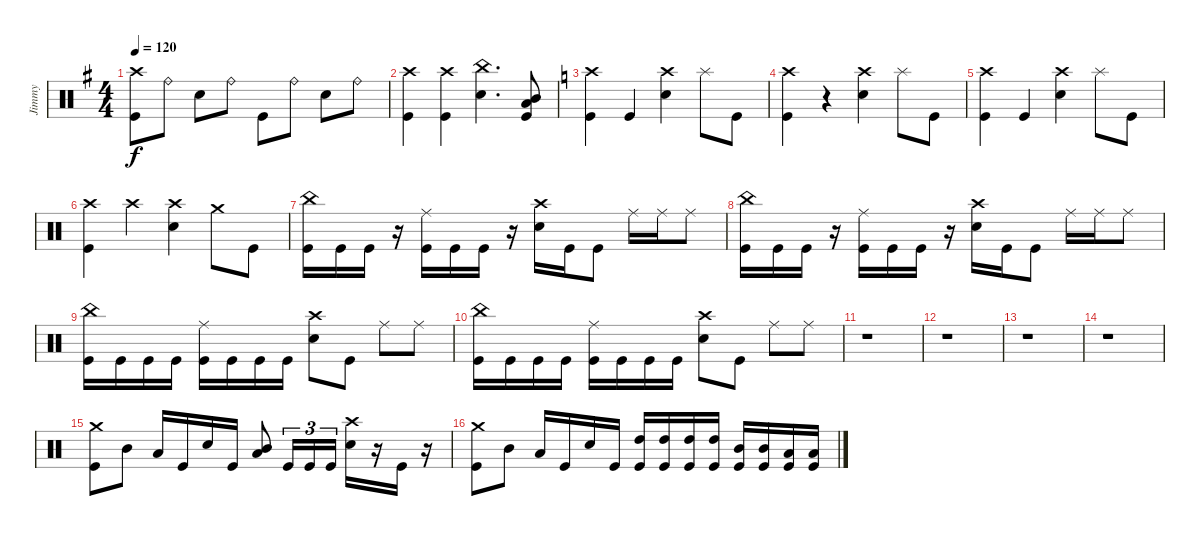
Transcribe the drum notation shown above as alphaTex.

\track ("Jimmy" "Jimmy") {instrument percussion}
\staff {score}
\articulation defaults
\ts (4 4)
\tempo 120
\clef neutral
\ks eminor
("Kick (hit)" "Crash high (hit)").8{dy f} "Ride (bell)".8 "Snare (hit) 2".8 "Ride (bell)".8 "Kick (hit)".8 "Ride (bell)".8 "Snare (hit) 2".8 "Ride (bell)".8 |
("Kick (hit)" "Crash high (hit)").4 ("Kick (hit)" "Crash high (hit)").4 ("Snare (hit) 2" "China (hit)").4{d} ("Low Tom (hit)" "Mid Tom (hit)" "Kick (hit)").8 |
\ks c
("Kick (hit)" "Crash high (hit)").4 "Kick (hit)".4 ("Snare (hit) 2" "Crash high (hit)").4 "Splash (hit)".8 "Kick (hit)".8 |
("Kick (hit)" "Crash high (hit)").4 r.4 ("Snare (hit) 2" "Crash high (hit)").4 "Splash (hit)".8 "Kick (hit)".8 |
("Kick (hit)" "Crash high (hit)").4 "Kick (hit)".4 ("Snare (hit) 2" "Crash high (hit)").4 "Splash (hit)".8 "Kick (hit)".8 |
("Kick (hit)" "Crash high (hit)").4 "Crash high (hit)".4 ("Snare (hit) 2" "Crash high (hit)").4 "Crash medium (hit)".8 "Kick (hit)".8 |
("Kick (hit)" "China (hit)").16 "Kick (hit)".16 "Kick (hit)".16 r.16 ("Kick (hit)" "Ride (middle)").16 "Kick (hit)".16 "Kick (hit)".16 r.16 ("Snare (hit) 2" "Crash high (hit)").16 "Kick (hit)".16 "Kick (hit)".8 "Ride (middle)".16 "Ride (middle)".16 "Ride (middle)".8 |
("Kick (hit)" "China (hit)").16 "Kick (hit)".16 "Kick (hit)".16 r.16 ("Kick (hit)" "Ride (middle)").16 "Kick (hit)".16 "Kick (hit)".16 r.16 ("Snare (hit) 2" "Crash high (hit)").16 "Kick (hit)".16 "Kick (hit)".8 "Ride (middle)".16 "Ride (middle)".16 "Ride (middle)".8 |
("Kick (hit)" "China (hit)").16 "Kick (hit)".16 "Kick (hit)".16 "Kick (hit)".16 ("Kick (hit)" "Ride (middle)").16 "Kick (hit)".16 "Kick (hit)".16 "Kick (hit)".16 ("Snare (hit) 2" "Crash high (hit)").8 "Kick (hit)".8 "Ride (middle)".8 "Ride (middle)".8 |
("Kick (hit)" "China (hit)").16 "Kick (hit)".16 "Kick (hit)".16 "Kick (hit)".16 ("Kick (hit)" "Ride (middle)").16 "Kick (hit)".16 "Kick (hit)".16 "Kick (hit)".16 ("Snare (hit) 2" "Crash high (hit)").8 "Kick (hit)".8 "Ride (middle)".8 "Ride (middle)".8 |
r.1 |
r.1 |
r.1 |
r.1 |
("Crash medium (hit)" "Kick (hit)").8 "Mid Tom (hit)".8 "Low Tom (hit)".16 "Kick (hit)".16 "Snare (hit) 2".16 "Kick (hit)".16 ("Mid Tom (hit)" "Low Tom (hit)").8 "Kick (hit)".16{tu (3 2)} "Kick (hit)".16{tu (3 2)} "Kick (hit)".16{tu (3 2)} ("Snare (hit) 2" "Crash high (hit)").16 r.16 "Kick (hit)".16 r.16 |
("Crash medium (hit)" "Kick (hit)").8 "Mid Tom (hit)".8 "Low Tom (hit)".16 "Kick (hit)".16 "Snare (hit) 2".16 "Kick (hit)".16 ("Kick (hit)" "High Tom (hit)").16 ("Kick (hit)" "High Tom (hit)").16 ("Kick (hit)" "High Tom (hit)").16 ("Kick (hit)" "High Tom (hit)").16 ("Kick (hit)" "Mid Tom (hit)").16 ("Kick (hit)" "Mid Tom (hit)").16 ("Kick (hit)" "Low Tom (hit)").16 ("Kick (hit)" "Low Tom (hit)").16
